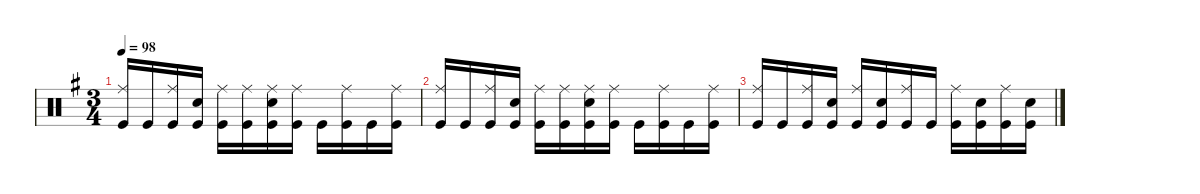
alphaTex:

\defaultSystemsLayout 4
\hideDynamics
\bracketExtendMode nobrackets
\singleTrackTrackNamePolicy hidden
\multiTrackTrackNamePolicy hidden
\firstSystemTrackNameMode fullname
\otherSystemsTrackNameOrientation horizontal
\track ("Drums" "drm.") {instrument percussion}
\staff {score}
\articulation defaults
\ts (3 4)
\tempo 98
\clef neutral
\ks eminor
("Ride (middle)"{acc forcenatural} "Kick (hit)"{acc forcenatural}).16{dy f beam Up} "Kick (hit)"{acc forcenatural}.16{beam Up} ("Ride (middle)"{acc forcenatural} "Kick (hit)"{acc forcenatural}).16{beam Up} ("Snare (hit) 2"{acc forcenatural} "Kick (hit)"{acc forcenatural}).16{beam Up} ("Ride (middle)"{acc forcenatural} "Kick (hit)"{acc forcenatural}).16{beam Down} ("Ride (middle)"{acc forcenatural} "Kick (hit)"{acc forcenatural}).16{beam Down} ("Ride (middle)"{acc forcenatural} "Snare (hit) 2"{acc forcenatural} "Kick (hit)"{acc forcenatural}).16{beam Down} ("Ride (middle)"{acc forcenatural} "Kick (hit)"{acc forcenatural}).16{beam Down} "Kick (hit)"{acc forcenatural}.16{beam Down} ("Ride (middle)"{acc forcenatural} "Kick (hit)"{acc forcenatural}).16{beam Down} "Kick (hit)"{acc forcenatural}.16{beam Down} ("Ride (middle)"{acc forcenatural} "Kick (hit)"{acc forcenatural}).16{beam Down} |
("Ride (middle)"{acc forcenatural} "Kick (hit)"{acc forcenatural}).16{beam Up} "Kick (hit)"{acc forcenatural}.16{beam Up} ("Ride (middle)"{acc forcenatural} "Kick (hit)"{acc forcenatural}).16{beam Up} ("Snare (hit) 2"{acc forcenatural} "Kick (hit)"{acc forcenatural}).16{beam Up} ("Ride (middle)"{acc forcenatural} "Kick (hit)"{acc forcenatural}).16{beam Down} ("Ride (middle)"{acc forcenatural} "Kick (hit)"{acc forcenatural}).16{beam Down} ("Ride (middle)"{acc forcenatural} "Snare (hit) 2"{acc forcenatural} "Kick (hit)"{acc forcenatural}).16{beam Down} ("Ride (middle)"{acc forcenatural} "Kick (hit)"{acc forcenatural}).16{beam Down} "Kick (hit)"{acc forcenatural}.16{beam Down} ("Ride (middle)"{acc forcenatural} "Kick (hit)"{acc forcenatural}).16{beam Down} "Kick (hit)"{acc forcenatural}.16{beam Down} ("Ride (middle)"{acc forcenatural} "Kick (hit)"{acc forcenatural}).16{beam Down} |
("Ride (middle)"{acc forcenatural} "Kick (hit)"{acc forcenatural}).16{beam Up} "Kick (hit)"{acc forcenatural}.16{beam Up} ("Ride (middle)"{acc forcenatural} "Kick (hit)"{acc forcenatural}).16{beam Up} ("Snare (hit) 2"{acc forcenatural} "Kick (hit)"{acc forcenatural}).16{beam Up} ("Ride (middle)"{acc forcenatural} "Kick (hit)"{acc forcenatural}).16{beam Up} ("Snare (hit) 2"{acc forcenatural} "Kick (hit)"{acc forcenatural}).16{beam Up} ("Ride (middle)"{acc forcenatural} "Kick (hit)"{acc forcenatural}).16{beam Up} "Kick (hit)"{acc forcenatural}.16{beam Up} ("Ride (middle)"{acc forcenatural} "Kick (hit)"{acc forcenatural}).16{beam Down} ("Snare (hit) 2"{acc forcenatural} "Kick (hit)"{acc forcenatural}).16{beam Down} ("Ride (middle)"{acc forcenatural} "Kick (hit)"{acc forcenatural}).16{beam Down} ("Snare (hit) 2"{acc forcenatural} "Kick (hit)"{acc forcenatural}).16{beam Down}
